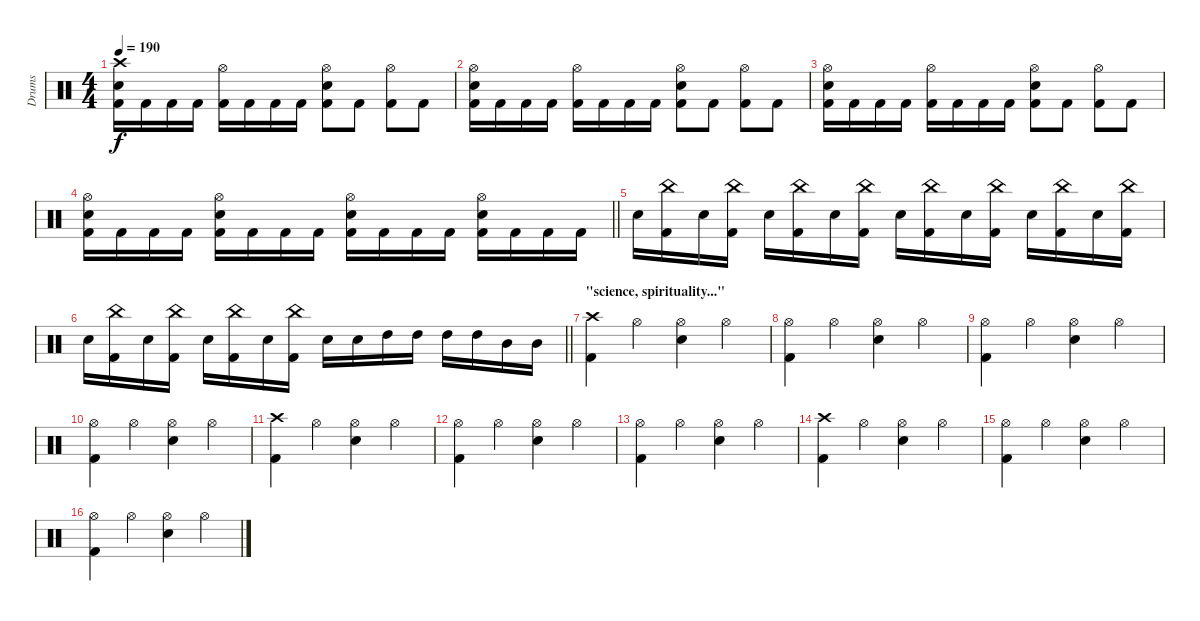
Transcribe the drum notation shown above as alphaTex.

\track ("Drums" "Drums") {instrument percussion}
\staff {score}
\articulation defaults
\ts (4 4)
\tempo 190
\clef neutral
\ks c
("Crash high (hit)" "Snare (hit) 2" "Kick (hit) 2").16{dy f} "Kick (hit) 2".16 "Kick (hit) 2".16 "Kick (hit) 2".16 ("Hi-Hat (open)" "Kick (hit) 2").16 "Kick (hit) 2".16 "Kick (hit) 2".16 "Kick (hit) 2".16 ("Hi-Hat (open)" "Snare (hit) 2" "Kick (hit) 2").8 "Kick (hit) 2".8 ("Hi-Hat (open)" "Kick (hit) 2").8 "Kick (hit) 2".8 |
("Hi-Hat (open)" "Snare (hit) 2" "Kick (hit) 2").16 "Kick (hit) 2".16 "Kick (hit) 2".16 "Kick (hit) 2".16 ("Hi-Hat (open)" "Kick (hit) 2").16 "Kick (hit) 2".16 "Kick (hit) 2".16 "Kick (hit) 2".16 ("Hi-Hat (open)" "Snare (hit) 2" "Kick (hit) 2").8 "Kick (hit) 2".8 ("Hi-Hat (open)" "Kick (hit) 2").8 "Kick (hit) 2".8 |
("Hi-Hat (open)" "Snare (hit) 2" "Kick (hit) 2").16 "Kick (hit) 2".16 "Kick (hit) 2".16 "Kick (hit) 2".16 ("Hi-Hat (open)" "Kick (hit) 2").16 "Kick (hit) 2".16 "Kick (hit) 2".16 "Kick (hit) 2".16 ("Hi-Hat (open)" "Snare (hit) 2" "Kick (hit) 2").8 "Kick (hit) 2".8 ("Hi-Hat (open)" "Kick (hit) 2").8 "Kick (hit) 2".8 |
\barLineRight lightlight
("Hi-Hat (open)" "Snare (hit) 2" "Kick (hit) 2").16 "Kick (hit) 2".16 "Kick (hit) 2".16 "Kick (hit) 2".16 ("Hi-Hat (open)" "Snare (hit) 2" "Kick (hit) 2").16 "Kick (hit) 2".16 "Kick (hit) 2".16 "Kick (hit) 2".16 ("Hi-Hat (open)" "Snare (hit) 2" "Kick (hit) 2").16 "Kick (hit) 2".16 "Kick (hit) 2".16 "Kick (hit) 2".16 ("Hi-Hat (open)" "Snare (hit) 2" "Kick (hit) 2").16 "Kick (hit) 2".16 "Kick (hit) 2".16 "Kick (hit) 2".16 |
\section ("" "")
"Snare (hit) 2".16 ("China (hit)" "Kick (hit) 2").16 "Snare (hit) 2".16 ("China (hit)" "Kick (hit) 2").16 "Snare (hit) 2".16 ("China (hit)" "Kick (hit) 2").16 "Snare (hit) 2".16 ("China (hit)" "Kick (hit) 2").16 "Snare (hit) 2".16 ("China (hit)" "Kick (hit) 2").16 "Snare (hit) 2".16 ("China (hit)" "Kick (hit) 2").16 "Snare (hit) 2".16 ("China (hit)" "Kick (hit) 2").16 "Snare (hit) 2".16 ("China (hit)" "Kick (hit) 2").16 |
\barLineRight lightlight "Snare (hit) 2".16
("China (hit)" "Kick (hit) 2").16 "Snare (hit) 2".16 ("China (hit)" "Kick (hit) 2").16 "Snare (hit) 2".16 ("China (hit)" "Kick (hit) 2").16 "Snare (hit) 2".16 ("China (hit)" "Kick (hit) 2").16 "Snare (hit) 2".16 "Snare (hit) 2".16 "High Tom (hit)".16 "High Tom (hit)".16 "High Tom (hit)".16 "High Tom (hit)".16 "Mid Tom (hit)".16 "Mid Tom (hit)".16 |
\section ("" "\"science, spirituality...\"")
("Crash high (hit)" "Kick (hit) 2").4 "Hi-Hat (open)".4 ("Hi-Hat (open)" "Snare (hit) 2").4 "Hi-Hat (open)".4 |
("Hi-Hat (open)" "Kick (hit) 2").4 "Hi-Hat (open)".4 ("Hi-Hat (open)" "Snare (hit) 2").4 "Hi-Hat (open)".4 |
("Hi-Hat (open)" "Kick (hit) 2").4 "Hi-Hat (open)".4 ("Hi-Hat (open)" "Snare (hit) 2").4 "Hi-Hat (open)".4 |
("Hi-Hat (open)" "Kick (hit) 2").4 "Hi-Hat (open)".4 ("Hi-Hat (open)" "Snare (hit) 2").4 "Hi-Hat (open)".4 |
("Crash high (hit)" "Kick (hit) 2").4 "Hi-Hat (open)".4 ("Hi-Hat (open)" "Snare (hit) 2").4 "Hi-Hat (open)".4 |
("Hi-Hat (open)" "Kick (hit) 2").4 "Hi-Hat (open)".4 ("Hi-Hat (open)" "Snare (hit) 2").4 "Hi-Hat (open)".4 |
("Hi-Hat (open)" "Kick (hit) 2").4 "Hi-Hat (open)".4 ("Hi-Hat (open)" "Snare (hit) 2").4 "Hi-Hat (open)".4 |
("Crash high (hit)" "Kick (hit) 2").4 "Hi-Hat (open)".4 ("Hi-Hat (open)" "Snare (hit) 2").4 "Hi-Hat (open)".4 |
("Hi-Hat (open)" "Kick (hit) 2").4 "Hi-Hat (open)".4 ("Hi-Hat (open)" "Snare (hit) 2").4 "Hi-Hat (open)".4 |
("Hi-Hat (open)" "Kick (hit) 2").4 "Hi-Hat (open)".4 ("Hi-Hat (open)" "Snare (hit) 2").4 "Hi-Hat (open)".4
